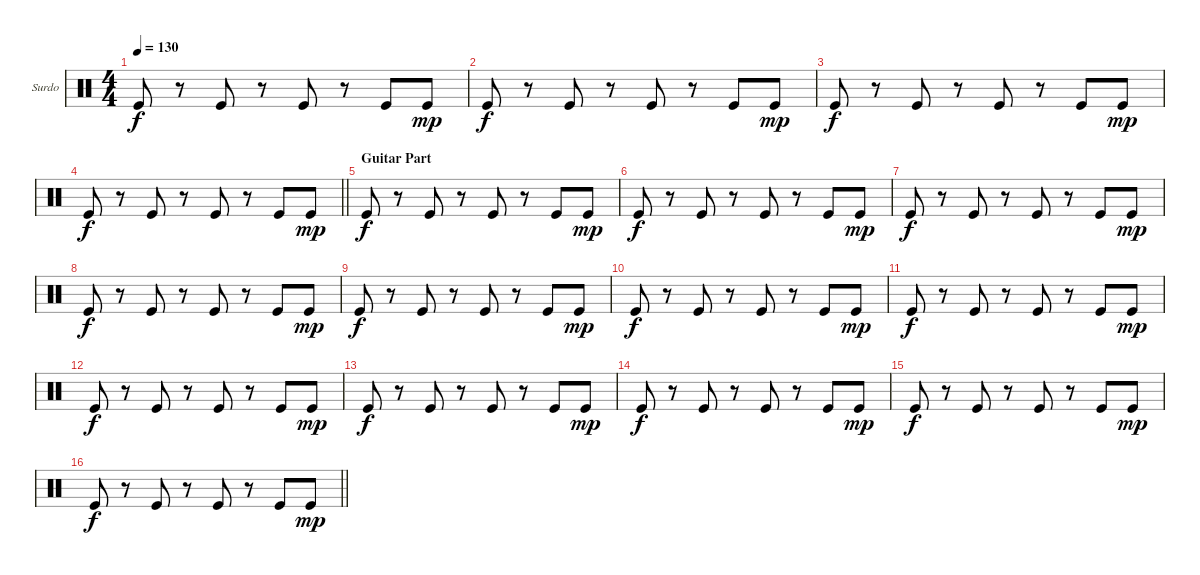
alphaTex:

\bracketExtendMode groupsimilarinstruments
\firstSystemTrackNameOrientation horizontal
\otherSystemsTrackNameOrientation horizontal
\track ("Surdo" "Surdo") {instrument percussion}
\staff {score}
\articulation defaults
\ts (4 4)
\tempo 130
\clef neutral
\ks c "Kick (hit)".8{dy f}
r.8 "Kick (hit)".8 r.8 "Kick (hit)".8 r.8 "Kick (hit)".8 "Kick (hit)".8{dy mp} |
"Kick (hit)".8{dy f} r.8 "Kick (hit)".8 r.8 "Kick (hit)".8 r.8 "Kick (hit)".8 "Kick (hit)".8{dy mp} |
"Kick (hit)".8{dy f} r.8 "Kick (hit)".8 r.8 "Kick (hit)".8 r.8 "Kick (hit)".8 "Kick (hit)".8{dy mp} |
\barLineRight lightlight "Kick (hit)".8{dy f}
r.8 "Kick (hit)".8 r.8 "Kick (hit)".8 r.8 "Kick (hit)".8 "Kick (hit)".8{dy mp} |
\section ("" "Guitar Part")
"Kick (hit)".8{dy f} r.8 "Kick (hit)".8 r.8 "Kick (hit)".8 r.8 "Kick (hit)".8 "Kick (hit)".8{dy mp} |
"Kick (hit)".8{dy f} r.8 "Kick (hit)".8 r.8 "Kick (hit)".8 r.8 "Kick (hit)".8 "Kick (hit)".8{dy mp} |
"Kick (hit)".8{dy f} r.8 "Kick (hit)".8 r.8 "Kick (hit)".8 r.8 "Kick (hit)".8 "Kick (hit)".8{dy mp} |
"Kick (hit)".8{dy f} r.8 "Kick (hit)".8 r.8 "Kick (hit)".8 r.8 "Kick (hit)".8 "Kick (hit)".8{dy mp} |
"Kick (hit)".8{dy f} r.8 "Kick (hit)".8 r.8 "Kick (hit)".8 r.8 "Kick (hit)".8 "Kick (hit)".8{dy mp} |
"Kick (hit)".8{dy f} r.8 "Kick (hit)".8 r.8 "Kick (hit)".8 r.8 "Kick (hit)".8 "Kick (hit)".8{dy mp} |
"Kick (hit)".8{dy f} r.8 "Kick (hit)".8 r.8 "Kick (hit)".8 r.8 "Kick (hit)".8 "Kick (hit)".8{dy mp} |
"Kick (hit)".8{dy f} r.8 "Kick (hit)".8 r.8 "Kick (hit)".8 r.8 "Kick (hit)".8 "Kick (hit)".8{dy mp} |
"Kick (hit)".8{dy f} r.8 "Kick (hit)".8 r.8 "Kick (hit)".8 r.8 "Kick (hit)".8 "Kick (hit)".8{dy mp} |
"Kick (hit)".8{dy f} r.8 "Kick (hit)".8 r.8 "Kick (hit)".8 r.8 "Kick (hit)".8 "Kick (hit)".8{dy mp} |
"Kick (hit)".8{dy f} r.8 "Kick (hit)".8 r.8 "Kick (hit)".8 r.8 "Kick (hit)".8 "Kick (hit)".8{dy mp} |
\barLineRight lightlight "Kick (hit)".8{dy f}
r.8 "Kick (hit)".8 r.8 "Kick (hit)".8 r.8 "Kick (hit)".8 "Kick (hit)".8{dy mp}
